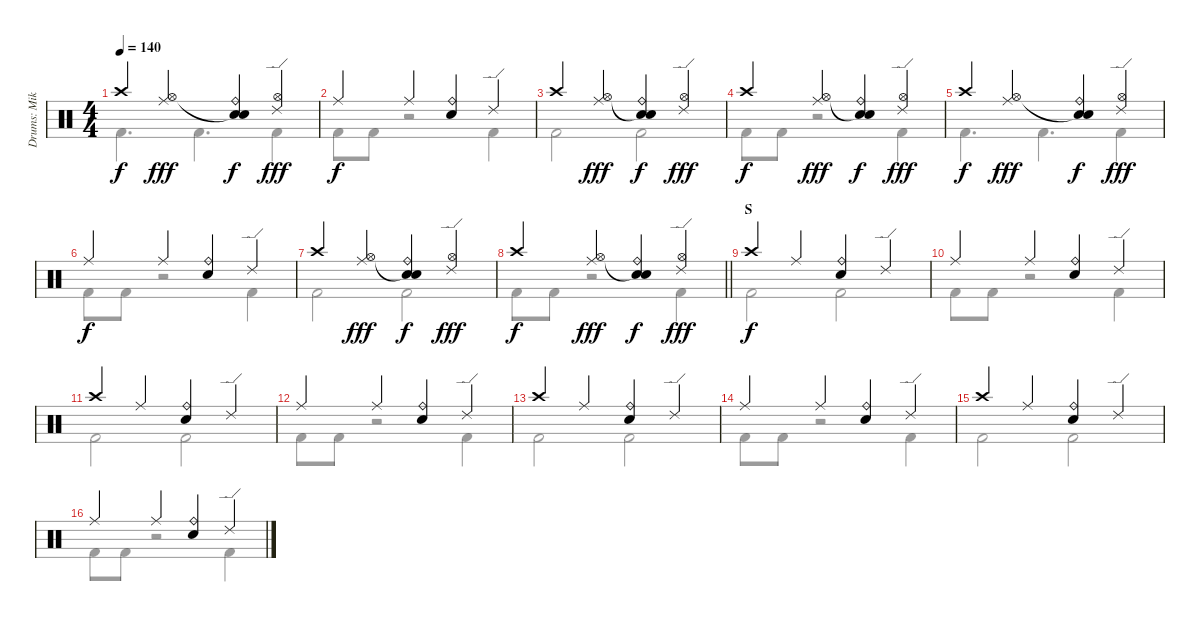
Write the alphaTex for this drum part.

\track ("Drums: Mike" "Drums: Mik") {instrument percussion}
\staff {score}
\articulation defaults
\voice
\ts (4 4)
\tempo 140
\clef neutral
\ks c "Crash high (hit)".4{dy f}
("Ride (middle)" "Hi-Hat (open)").4{dy fff} ("Ride (bell)" "Snare (hit)"{t} "Snare (hit) 2").4{dy f} ("Ride (edge) 2" "Hi-Hat (open)").4{dy fff} |
"Ride (middle)".4{dy f} "Ride (middle)".4 ("Ride (bell)" "Snare (hit) 2").4 "Ride (edge) 2".4 |
"Crash high (hit)".4 ("Ride (middle)" "Hi-Hat (open)").4{dy fff} ("Ride (bell)" "Snare (hit)"{t} "Snare (hit) 2").4{dy f} ("Ride (edge) 2" "Hi-Hat (open)").4{dy fff} |
"Crash high (hit)".4{dy f} ("Ride (middle)" "Hi-Hat (open)").4{dy fff} ("Ride (bell)" "Snare (hit)"{t} "Snare (hit) 2").4{dy f} ("Ride (edge) 2" "Hi-Hat (open)").4{dy fff} |
"Crash high (hit)".4{dy f} ("Ride (middle)" "Hi-Hat (open)").4{dy fff} ("Ride (bell)" "Snare (hit)"{t} "Snare (hit) 2").4{dy f} ("Ride (edge) 2" "Hi-Hat (open)").4{dy fff} |
"Ride (middle)".4{dy f} "Ride (middle)".4 ("Ride (bell)" "Snare (hit) 2").4 "Ride (edge) 2".4 |
"Crash high (hit)".4 ("Ride (middle)" "Hi-Hat (open)").4{dy fff} ("Ride (bell)" "Snare (hit)"{t} "Snare (hit) 2").4{dy f} ("Ride (edge) 2" "Hi-Hat (open)").4{dy fff} |
\barLineRight lightlight "Crash high (hit)".4{dy f}
("Ride (middle)" "Hi-Hat (open)").4{dy fff} ("Ride (bell)" "Snare (hit)"{t} "Snare (hit) 2").4{dy f} ("Ride (edge) 2" "Hi-Hat (open)").4{dy fff} |
\section ("" "S")
"Crash high (hit)".4{dy f} "Ride (middle)".4 ("Ride (bell)" "Snare (hit) 2").4 "Ride (edge) 2".4 |
"Ride (middle)".4 "Ride (middle)".4 ("Ride (bell)" "Snare (hit) 2").4 "Ride (edge) 2".4 |
"Crash high (hit)".4 "Ride (middle)".4 ("Ride (bell)" "Snare (hit) 2").4 "Ride (edge) 2".4 |
"Ride (middle)".4 "Ride (middle)".4 ("Ride (bell)" "Snare (hit) 2").4 "Ride (edge) 2".4 |
"Crash high (hit)".4 "Ride (middle)".4 ("Ride (bell)" "Snare (hit) 2").4 "Ride (edge) 2".4 |
"Ride (middle)".4 "Ride (middle)".4 ("Ride (bell)" "Snare (hit) 2").4 "Ride (edge) 2".4 |
"Crash high (hit)".4 "Ride (middle)".4 ("Ride (bell)" "Snare (hit) 2").4 "Ride (edge) 2".4 |
"Ride (middle)".4 "Ride (middle)".4 ("Ride (bell)" "Snare (hit) 2").4 "Ride (edge) 2".4
\voice
\clef neutral
\ottava regular
\simile none
\ks c "Kick (hit) 2".4{d dy f} "Kick (hit) 2".4{d} "Kick (hit) 2".4{dy fff}
|
"Kick (hit) 2".8{dy f} "Kick (hit) 2".8 r.2 "Kick (hit) 2".4 |
"Kick (hit) 2".2 "Kick (hit) 2".2 |
"Kick (hit) 2".8 "Kick (hit) 2".8 r.2 "Kick (hit) 2".4 |
"Kick (hit) 2".4{d} "Kick (hit) 2".4{d} "Kick (hit) 2".4{dy fff} |
"Kick (hit) 2".8{dy f} "Kick (hit) 2".8 r.2 "Kick (hit) 2".4 |
"Kick (hit) 2".2 "Kick (hit) 2".2 |
\barLineRight lightlight "Kick (hit) 2".8 "Kick (hit) 2".8
r.2 "Kick (hit) 2".4 |
"Kick (hit) 2".2 "Kick (hit) 2".2 |
"Kick (hit) 2".8 "Kick (hit) 2".8 r.2 "Kick (hit) 2".4 |
"Kick (hit) 2".2 "Kick (hit) 2".2 |
"Kick (hit) 2".8 "Kick (hit) 2".8 r.2 "Kick (hit) 2".4 |
"Kick (hit) 2".2 "Kick (hit) 2".2 |
"Kick (hit) 2".8 "Kick (hit) 2".8 r.2 "Kick (hit) 2".4 |
"Kick (hit) 2".2 "Kick (hit) 2".2 |
"Kick (hit) 2".8 "Kick (hit) 2".8 r.2 "Kick (hit) 2".4
